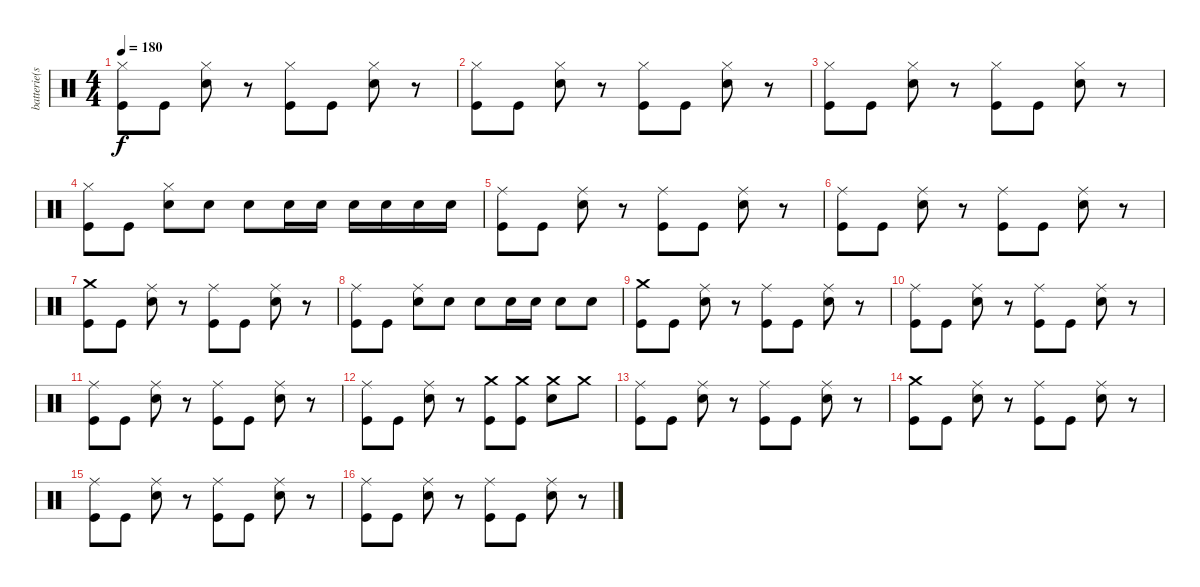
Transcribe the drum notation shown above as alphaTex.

\track ("batterie(scott)" "batterie(s") {instrument percussion}
\staff {score}
\articulation defaults
\ts (4 4)
\tempo 180
\clef neutral
\ks c
("Hi-Hat (closed)" "Kick (hit)").8{dy f} "Kick (hit)".8 ("Hi-Hat (closed)" "Snare (hit) 2").8 r.8 ("Hi-Hat (closed)" "Kick (hit)").8 "Kick (hit)".8 ("Hi-Hat (closed)" "Snare (hit) 2").8 r.8 |
("Hi-Hat (closed)" "Kick (hit)").8 "Kick (hit)".8 ("Hi-Hat (closed)" "Snare (hit) 2").8 r.8 ("Hi-Hat (closed)" "Kick (hit)").8 "Kick (hit)".8 ("Hi-Hat (closed)" "Snare (hit) 2").8 r.8 |
("Hi-Hat (closed)" "Kick (hit)").8 "Kick (hit)".8 ("Hi-Hat (closed)" "Snare (hit) 2").8 r.8 ("Hi-Hat (closed)" "Kick (hit)").8 "Kick (hit)".8 ("Hi-Hat (closed)" "Snare (hit) 2").8 r.8 |
("Hi-Hat (closed)" "Kick (hit)").8 "Kick (hit)".8 ("Hi-Hat (closed)" "Snare (hit) 2").8 "Snare (hit) 2".8 "Snare (hit) 2".8 "Snare (hit) 2".16 "Snare (hit) 2".16 "Snare (hit) 2".16 "Snare (hit) 2".16 "Snare (hit) 2".16 "Snare (hit) 2".16 |
("Ride (middle)" "Kick (hit)").8 "Kick (hit)".8 ("Ride (middle)" "Snare (hit) 2").8 r.8 ("Ride (middle)" "Kick (hit)").8 "Kick (hit)".8 ("Ride (middle)" "Snare (hit) 2").8 r.8 |
("Ride (middle)" "Kick (hit)").8 "Kick (hit)".8 ("Ride (middle)" "Snare (hit) 2").8 r.8 ("Ride (middle)" "Kick (hit)").8 "Kick (hit)".8 ("Ride (middle)" "Snare (hit) 2").8 r.8 |
("Crash medium (hit)" "Kick (hit)").8 "Kick (hit)".8 ("Ride (middle)" "Snare (hit) 2").8 r.8 ("Ride (middle)" "Kick (hit)").8 "Kick (hit)".8 ("Ride (middle)" "Snare (hit) 2").8 r.8 |
("Ride (middle)" "Kick (hit)").8 "Kick (hit)".8 ("Ride (middle)" "Snare (hit) 2").8 "Snare (hit) 2".8 "Snare (hit) 2".8 "Snare (hit) 2".16 "Snare (hit) 2".16 "Snare (hit) 2".8 "Snare (hit) 2".8 |
("Crash medium (hit)" "Kick (hit)").8 "Kick (hit)".8 ("Ride (middle)" "Snare (hit) 2").8 r.8 ("Ride (middle)" "Kick (hit)").8 "Kick (hit)".8 ("Ride (middle)" "Snare (hit) 2").8 r.8 |
("Ride (middle)" "Kick (hit)").8 "Kick (hit)".8 ("Ride (middle)" "Snare (hit) 2").8 r.8 ("Ride (middle)" "Kick (hit)").8 "Kick (hit)".8 ("Ride (middle)" "Snare (hit) 2").8 r.8 |
("Ride (middle)" "Kick (hit)").8 "Kick (hit)".8 ("Ride (middle)" "Snare (hit) 2").8 r.8 ("Ride (middle)" "Kick (hit)").8 "Kick (hit)".8 ("Ride (middle)" "Snare (hit) 2").8 r.8 |
("Ride (middle)" "Kick (hit)").8 "Kick (hit)".8 ("Ride (middle)" "Snare (hit) 2").8 r.8 ("Crash medium (hit)" "Kick (hit)").8 ("Crash medium (hit)" "Kick (hit)").8 ("Crash medium (hit)" "Snare (hit) 2").8 "Crash medium (hit)".8 |
("Ride (middle)" "Kick (hit)").8 "Kick (hit)".8 ("Ride (middle)" "Snare (hit) 2").8 r.8 ("Ride (middle)" "Kick (hit)").8 "Kick (hit)".8 ("Ride (middle)" "Snare (hit) 2").8 r.8 |
("Crash medium (hit)" "Kick (hit)").8 "Kick (hit)".8 ("Ride (middle)" "Snare (hit) 2").8 r.8 ("Ride (middle)" "Kick (hit)").8 "Kick (hit)".8 ("Ride (middle)" "Snare (hit) 2").8 r.8 |
("Ride (middle)" "Kick (hit)").8 "Kick (hit)".8 ("Ride (middle)" "Snare (hit) 2").8 r.8 ("Ride (middle)" "Kick (hit)").8 "Kick (hit)".8 ("Ride (middle)" "Snare (hit) 2").8 r.8 |
("Ride (middle)" "Kick (hit)").8 "Kick (hit)".8 ("Ride (middle)" "Snare (hit) 2").8 r.8 ("Ride (middle)" "Kick (hit)").8 "Kick (hit)".8 ("Ride (middle)" "Snare (hit) 2").8 r.8
